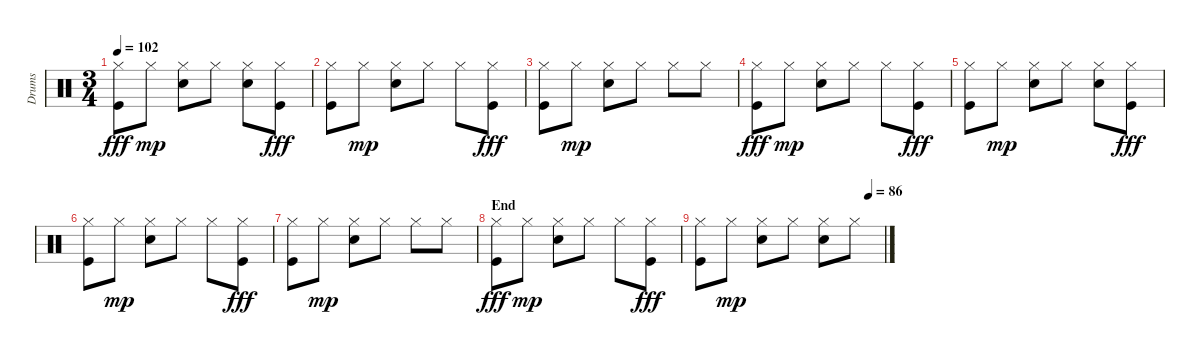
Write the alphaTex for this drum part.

\track ("Drums" "Drums") {instrument percussion}
\staff {score}
\articulation defaults
\ts (3 4)
\tempo 102
\clef neutral
\ks c
("Hi-Hat (closed)" "Kick (hit)").8{dy fff} "Hi-Hat (closed)".8{dy mp} ("Hi-Hat (closed)" "Snare (hit) 2").8 "Hi-Hat (closed)".8 ("Hi-Hat (closed)" "Snare (hit) 2").8 ("Hi-Hat (closed)" "Kick (hit)").8{dy fff} |
("Hi-Hat (closed)" "Kick (hit)").8 "Hi-Hat (closed)".8{dy mp} ("Hi-Hat (closed)" "Snare (hit) 2").8 "Hi-Hat (closed)".8 "Hi-Hat (closed)".8 ("Hi-Hat (closed)" "Kick (hit)").8{dy fff} |
("Hi-Hat (closed)" "Kick (hit)").8 "Hi-Hat (closed)".8{dy mp} ("Hi-Hat (closed)" "Snare (hit) 2").8 "Hi-Hat (closed)".8 "Hi-Hat (closed)".8 "Hi-Hat (closed)".8 |
("Hi-Hat (closed)" "Kick (hit)").8{dy fff} "Hi-Hat (closed)".8{dy mp} ("Hi-Hat (closed)" "Snare (hit) 2").8 "Hi-Hat (closed)".8 "Hi-Hat (closed)".8 ("Hi-Hat (closed)" "Kick (hit)").8{dy fff} |
("Hi-Hat (closed)" "Kick (hit)").8 "Hi-Hat (closed)".8{dy mp} ("Hi-Hat (closed)" "Snare (hit) 2").8 "Hi-Hat (closed)".8 ("Hi-Hat (closed)" "Snare (hit) 2").8 ("Hi-Hat (closed)" "Kick (hit)").8{dy fff} |
("Hi-Hat (closed)" "Kick (hit)").8 "Hi-Hat (closed)".8{dy mp} ("Hi-Hat (closed)" "Snare (hit) 2").8 "Hi-Hat (closed)".8 "Hi-Hat (closed)".8 ("Hi-Hat (closed)" "Kick (hit)").8{dy fff} |
("Hi-Hat (closed)" "Kick (hit)").8 "Hi-Hat (closed)".8{dy mp} ("Hi-Hat (closed)" "Snare (hit) 2").8 "Hi-Hat (closed)".8 "Hi-Hat (closed)".8 "Hi-Hat (closed)".8 |
\section ("" "End")
("Hi-Hat (closed)" "Kick (hit)").8{dy fff} "Hi-Hat (closed)".8{dy mp} ("Hi-Hat (closed)" "Snare (hit) 2").8 "Hi-Hat (closed)".8 "Hi-Hat (closed)".8 ("Hi-Hat (closed)" "Kick (hit)").8{dy fff} |
\tempo (86 0.9166666666666666)
("Hi-Hat (closed)" "Kick (hit)").8 "Hi-Hat (closed)".8{dy mp} ("Hi-Hat (closed)" "Snare (hit) 2").8 "Hi-Hat (closed)".8 ("Hi-Hat (closed)" "Snare (hit) 2").8 "Hi-Hat (closed)".8
